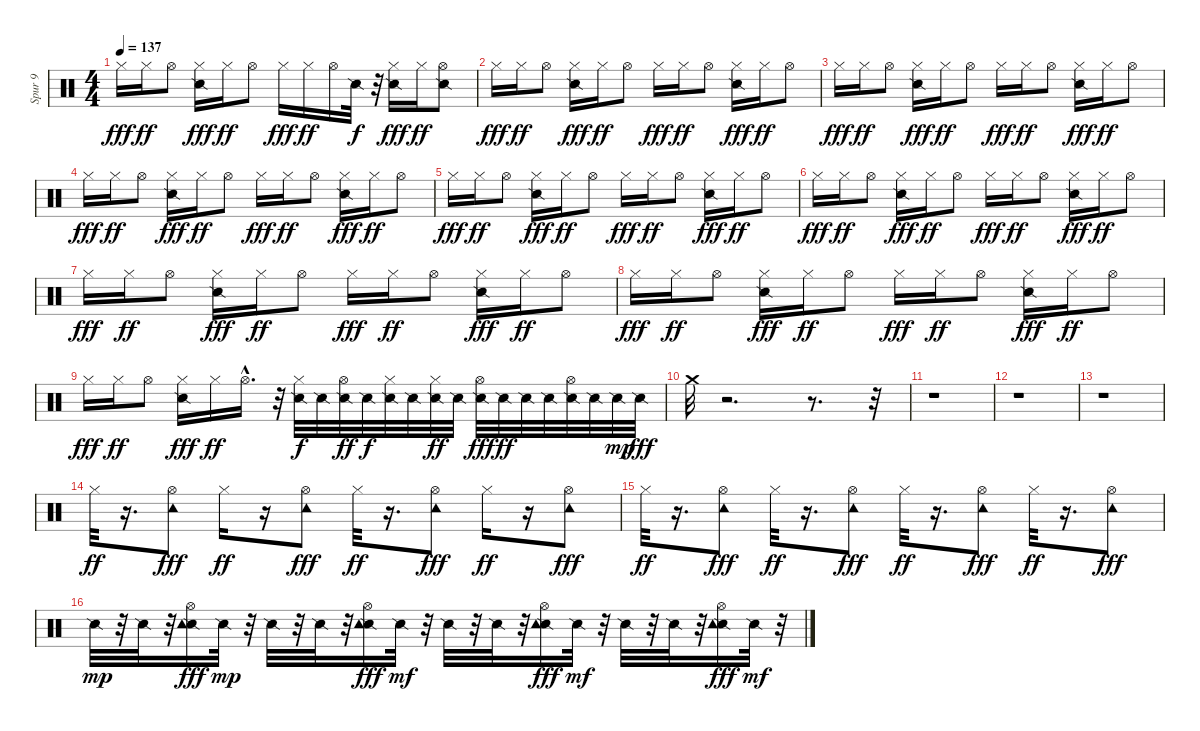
\track ("Spur 9" "Spur 9") {instrument percussion}
\staff {score}
\articulation defaults
\ts (4 4)
\tempo 137
\clef neutral
\ks c "Hi-Hat (closed)".16{dy fff} "Hi-Hat (closed)".16{dy ff} "Hi-Hat (open)".8
("Snare (side stick) 2" "Hi-Hat (closed)").16{dy fff} "Hi-Hat (closed)".16{dy ff} "Hi-Hat (open)".8 "Hi-Hat (closed)".16{dy fff} "Hi-Hat (closed)".16{dy ff} "Hi-Hat (open)".16 "Snare (side stick) 2".32{dy f} r.32 ("Snare (side stick) 2" "Hi-Hat (closed)").16{dy fff} "Hi-Hat (closed)".16{dy ff} ("Snare (side stick) 2" "Hi-Hat (open)").8 |
"Hi-Hat (closed)".16{dy fff} "Hi-Hat (closed)".16{dy ff} "Hi-Hat (open)".8 ("Snare (side stick) 2" "Hi-Hat (closed)").16{dy fff} "Hi-Hat (closed)".16{dy ff} "Hi-Hat (open)".8 "Hi-Hat (closed)".16{dy fff} "Hi-Hat (closed)".16{dy ff} "Hi-Hat (open)".8 ("Snare (side stick) 2" "Hi-Hat (closed)").16{dy fff} "Hi-Hat (closed)".16{dy ff} "Hi-Hat (open)".8 |
"Hi-Hat (closed)".16{dy fff} "Hi-Hat (closed)".16{dy ff} "Hi-Hat (open)".8 ("Snare (side stick) 2" "Hi-Hat (closed)").16{dy fff} "Hi-Hat (closed)".16{dy ff} "Hi-Hat (open)".8 "Hi-Hat (closed)".16{dy fff} "Hi-Hat (closed)".16{dy ff} "Hi-Hat (open)".8 ("Snare (side stick) 2" "Hi-Hat (closed)").16{dy fff} "Hi-Hat (closed)".16{dy ff} "Hi-Hat (open)".8 |
"Hi-Hat (closed)".16{dy fff} "Hi-Hat (closed)".16{dy ff} "Hi-Hat (open)".8 ("Snare (side stick) 2" "Hi-Hat (closed)").16{dy fff} "Hi-Hat (closed)".16{dy ff} "Hi-Hat (open)".8 "Hi-Hat (closed)".16{dy fff} "Hi-Hat (closed)".16{dy ff} "Hi-Hat (open)".8 ("Snare (side stick) 2" "Hi-Hat (closed)").16{dy fff} "Hi-Hat (closed)".16{dy ff} "Hi-Hat (open)".8 |
"Hi-Hat (closed)".16{dy fff} "Hi-Hat (closed)".16{dy ff} "Hi-Hat (open)".8 ("Snare (side stick) 2" "Hi-Hat (closed)").16{dy fff} "Hi-Hat (closed)".16{dy ff} "Hi-Hat (open)".8 "Hi-Hat (closed)".16{dy fff} "Hi-Hat (closed)".16{dy ff} "Hi-Hat (open)".8 ("Snare (side stick) 2" "Hi-Hat (closed)").16{dy fff} "Hi-Hat (closed)".16{dy ff} "Hi-Hat (open)".8 |
"Hi-Hat (closed)".16{dy fff} "Hi-Hat (closed)".16{dy ff} "Hi-Hat (open)".8 ("Snare (side stick) 2" "Hi-Hat (closed)").16{dy fff} "Hi-Hat (closed)".16{dy ff} "Hi-Hat (open)".8 "Hi-Hat (closed)".16{dy fff} "Hi-Hat (closed)".16{dy ff} "Hi-Hat (open)".8 ("Snare (side stick) 2" "Hi-Hat (closed)").16{dy fff} "Hi-Hat (closed)".16{dy ff} "Hi-Hat (open)".8 |
"Hi-Hat (closed)".16{dy fff} "Hi-Hat (closed)".16{dy ff} "Hi-Hat (open)".8 ("Snare (side stick) 2" "Hi-Hat (closed)").16{dy fff} "Hi-Hat (closed)".16{dy ff} "Hi-Hat (open)".8 "Hi-Hat (closed)".16{dy fff} "Hi-Hat (closed)".16{dy ff} "Hi-Hat (open)".8 ("Snare (side stick) 2" "Hi-Hat (closed)").16{dy fff} "Hi-Hat (closed)".16{dy ff} "Hi-Hat (open)".8 |
"Hi-Hat (closed)".16{dy fff} "Hi-Hat (closed)".16{dy ff} "Hi-Hat (open)".8 ("Snare (side stick) 2" "Hi-Hat (closed)").16{dy fff} "Hi-Hat (closed)".16{dy ff} "Hi-Hat (open)".8 "Hi-Hat (closed)".16{dy fff} "Hi-Hat (closed)".16{dy ff} "Hi-Hat (open)".8 ("Snare (side stick) 2" "Hi-Hat (closed)").16{dy fff} "Hi-Hat (closed)".16{dy ff} "Hi-Hat (open)".8 |
"Hi-Hat (closed)".16{dy fff} "Hi-Hat (closed)".16{dy ff} "Hi-Hat (open)".8 ("Snare (side stick) 2" "Hi-Hat (closed)").16{dy fff} "Hi-Hat (closed)".16{dy ff} "Hi-Hat (open)"{hac}.16{d} r.32 ("Snare (side stick) 2" "Hi-Hat (closed)").32{dy f} "Snare (side stick) 2".32 ("Snare (side stick) 2" "Hi-Hat (open)").32{dy ff} "Snare (side stick) 2".32{dy f} ("Snare (side stick) 2" "Hi-Hat (closed)").32 "Snare (side stick) 2".32 ("Snare (side stick) 2" "Hi-Hat (closed)").32{dy ff} "Snare (side stick) 2".32 ("Snare (side stick) 2" "Hi-Hat (open)").32{dy fff} "Snare (side stick) 2".32{dy ff} "Snare (side stick) 2".32 "Snare (side stick) 2".32 ("Snare (side stick) 2" "Hi-Hat (open)").32 "Snare (side stick) 2".32 "Snare (side stick) 2".32{dy mp} "Snare (side stick) 2".32{dy fff} |
"Crash medium (hit)".32 r.2{d} r.8{d} r.32 |
r.1 |
r.1 |
r.1 |
"Hi-Hat (closed)".32{dy ff} r.16{d} ("Hi-Hat (open)" "Tambourine (hit)").8{dy fff} "Hi-Hat (closed)".16{dy ff} r.16 ("Hi-Hat (open)" "Tambourine (hit)").8{dy fff} "Hi-Hat (closed)".32{dy ff} r.16{d} ("Hi-Hat (open)" "Tambourine (hit)").8{dy fff} "Hi-Hat (closed)".16{dy ff} r.16 ("Hi-Hat (open)" "Tambourine (hit)").8{dy fff} |
"Hi-Hat (closed)".32{dy ff} r.16{d} ("Hi-Hat (open)" "Tambourine (hit)").8{dy fff} "Hi-Hat (closed)".32{dy ff} r.16{d} ("Hi-Hat (open)" "Tambourine (hit)").8{dy fff} "Hi-Hat (closed)".32{dy ff} r.16{d} ("Hi-Hat (open)" "Tambourine (hit)").8{dy fff} "Hi-Hat (closed)".32{dy ff} r.16{d} ("Hi-Hat (open)" "Tambourine (hit)").8{dy fff} |
"Snare (side stick) 2".32{dy mp} r.32 "Snare (side stick) 2".32 r.32 ("Snare (side stick) 2" "Hi-Hat (open)" "Tambourine (hit)").16{dy fff} "Snare (side stick) 2".32{dy mp} r.32 "Snare (side stick) 2".32 r.32 "Snare (side stick) 2".32 r.32 ("Snare (side stick) 2" "Hi-Hat (open)" "Tambourine (hit)").16{dy fff} "Snare (side stick) 2".32{dy mf} r.32 "Snare (side stick) 2".32 r.32 "Snare (side stick) 2".32 r.32 ("Snare (side stick) 2" "Hi-Hat (open)" "Tambourine (hit)").16{dy fff} "Snare (side stick) 2".32{dy mf} r.32 "Snare (side stick) 2".32 r.32 "Snare (side stick) 2".32 r.32 ("Snare (side stick) 2" "Hi-Hat (open)" "Tambourine (hit)").16{dy fff} "Snare (side stick) 2".32{dy mf} r.32
